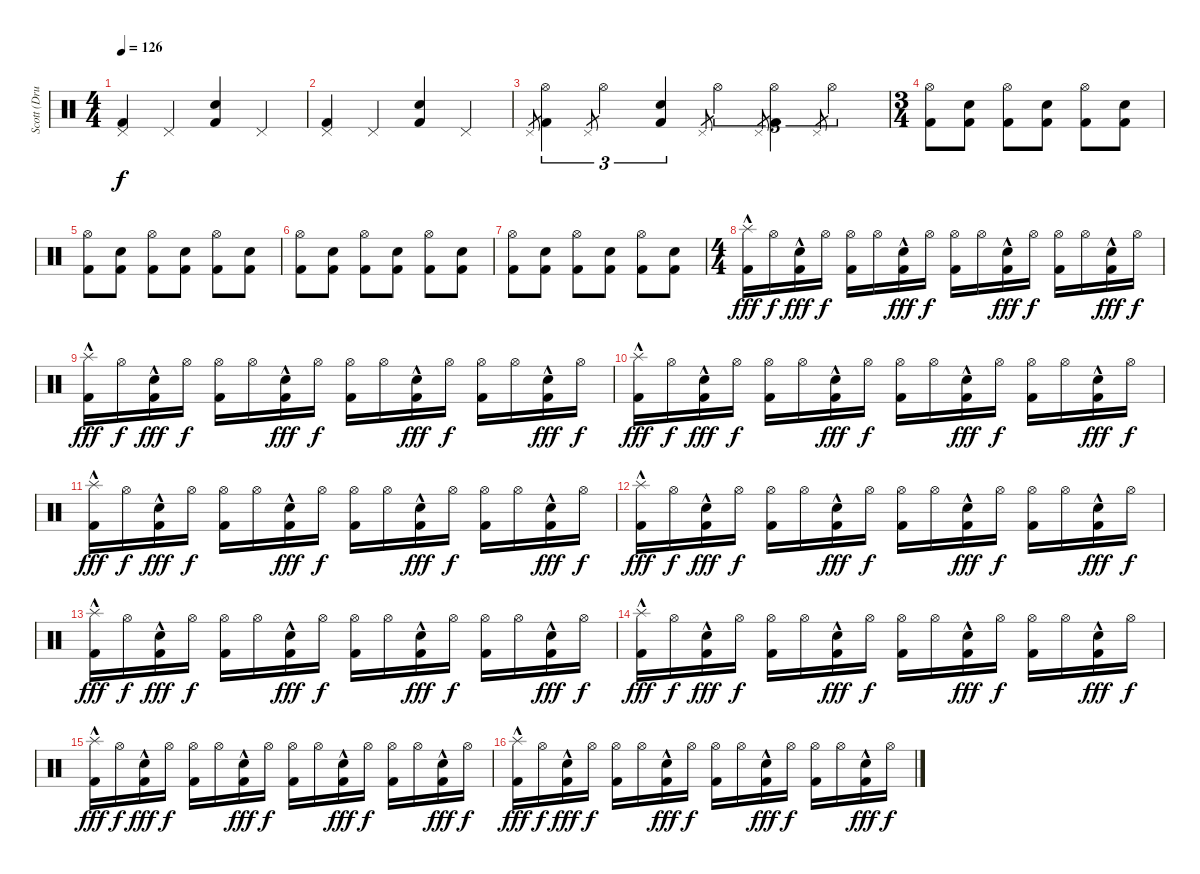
\track ("Scott (Drums)" "Scott (Dru") {instrument percussion}
\staff {score}
\articulation defaults
\ts (4 4)
\tempo 126
\clef neutral
\ks c
("Pedal Hi-Hat (hit)" "Kick (hit) 2").4{dy f} "Pedal Hi-Hat (hit)".4 ("Electric Snare (hit)" "Kick (hit) 2").4 "Pedal Hi-Hat (hit)".4 |
("Pedal Hi-Hat (hit)" "Kick (hit) 2").4 "Pedal Hi-Hat (hit)".4 ("Electric Snare (hit)" "Kick (hit) 2").4 "Pedal Hi-Hat (hit)".4 |
"Pedal Hi-Hat (hit)".8{gr} ("Hi-Hat (open)" "Kick (hit) 2").4{tu (3 2)} "Pedal Hi-Hat (hit)".8{gr} "Hi-Hat (open)".4{tu (3 2)} ("Electric Snare (hit)" "Kick (hit) 2").4{tu (3 2)} "Pedal Hi-Hat (hit)".8{gr} "Hi-Hat (open)".4{tu (3 2)} "Pedal Hi-Hat (hit)".8{gr} ("Hi-Hat (open)" "Kick (hit) 2").4{tu (3 2)} "Pedal Hi-Hat (hit)".8{gr} "Hi-Hat (open)".4{tu (3 2)} |
\ts (3 4)
("Hi-Hat (open)" "Kick (hit) 2").8 ("Electric Snare (hit)" "Kick (hit) 2").8 ("Hi-Hat (open)" "Kick (hit) 2").8 ("Electric Snare (hit)" "Kick (hit) 2").8 ("Hi-Hat (open)" "Kick (hit) 2").8 ("Electric Snare (hit)" "Kick (hit) 2").8 |
("Hi-Hat (open)" "Kick (hit) 2").8 ("Electric Snare (hit)" "Kick (hit) 2").8 ("Hi-Hat (open)" "Kick (hit) 2").8 ("Electric Snare (hit)" "Kick (hit) 2").8 ("Hi-Hat (open)" "Kick (hit) 2").8 ("Electric Snare (hit)" "Kick (hit) 2").8 |
("Hi-Hat (open)" "Kick (hit) 2").8 ("Electric Snare (hit)" "Kick (hit) 2").8 ("Hi-Hat (open)" "Kick (hit) 2").8 ("Electric Snare (hit)" "Kick (hit) 2").8 ("Hi-Hat (open)" "Kick (hit) 2").8 ("Electric Snare (hit)" "Kick (hit) 2").8 |
("Hi-Hat (open)" "Kick (hit) 2").8 ("Electric Snare (hit)" "Kick (hit) 2").8 ("Hi-Hat (open)" "Kick (hit) 2").8 ("Electric Snare (hit)" "Kick (hit) 2").8 ("Hi-Hat (open)" "Kick (hit) 2").8 ("Electric Snare (hit)" "Kick (hit) 2").8 |
\ts (4 4)
("Splash (hit)"{hac} "Kick (hit) 2").16{dy fff} "Hi-Hat (open)".16{dy f} ("Electric Snare (hit)"{hac} "Kick (hit) 2").16{dy fff} "Hi-Hat (open)".16{dy f} ("Hi-Hat (open)" "Kick (hit) 2").16 "Hi-Hat (open)".16 ("Electric Snare (hit)"{hac} "Kick (hit) 2").16{dy fff} "Hi-Hat (open)".16{dy f} ("Hi-Hat (open)" "Kick (hit) 2").16 "Hi-Hat (open)".16 ("Electric Snare (hit)"{hac} "Kick (hit) 2").16{dy fff} "Hi-Hat (open)".16{dy f} ("Hi-Hat (open)" "Kick (hit) 2").16 "Hi-Hat (open)".16 ("Electric Snare (hit)"{hac} "Kick (hit) 2").16{dy fff} "Hi-Hat (open)".16{dy f} |
("Splash (hit)"{hac} "Kick (hit) 2").16{dy fff} "Hi-Hat (open)".16{dy f} ("Electric Snare (hit)"{hac} "Kick (hit) 2").16{dy fff} "Hi-Hat (open)".16{dy f} ("Hi-Hat (open)" "Kick (hit) 2").16 "Hi-Hat (open)".16 ("Electric Snare (hit)"{hac} "Kick (hit) 2").16{dy fff} "Hi-Hat (open)".16{dy f} ("Hi-Hat (open)" "Kick (hit) 2").16 "Hi-Hat (open)".16 ("Electric Snare (hit)"{hac} "Kick (hit) 2").16{dy fff} "Hi-Hat (open)".16{dy f} ("Hi-Hat (open)" "Kick (hit) 2").16 "Hi-Hat (open)".16 ("Electric Snare (hit)"{hac} "Kick (hit) 2").16{dy fff} "Hi-Hat (open)".16{dy f} |
("Splash (hit)"{hac} "Kick (hit) 2").16{dy fff} "Hi-Hat (open)".16{dy f} ("Electric Snare (hit)"{hac} "Kick (hit) 2").16{dy fff} "Hi-Hat (open)".16{dy f} ("Hi-Hat (open)" "Kick (hit) 2").16 "Hi-Hat (open)".16 ("Electric Snare (hit)"{hac} "Kick (hit) 2").16{dy fff} "Hi-Hat (open)".16{dy f} ("Hi-Hat (open)" "Kick (hit) 2").16 "Hi-Hat (open)".16 ("Electric Snare (hit)"{hac} "Kick (hit) 2").16{dy fff} "Hi-Hat (open)".16{dy f} ("Hi-Hat (open)" "Kick (hit) 2").16 "Hi-Hat (open)".16 ("Electric Snare (hit)"{hac} "Kick (hit) 2").16{dy fff} "Hi-Hat (open)".16{dy f} |
("Splash (hit)"{hac} "Kick (hit) 2").16{dy fff} "Hi-Hat (open)".16{dy f} ("Electric Snare (hit)"{hac} "Kick (hit) 2").16{dy fff} "Hi-Hat (open)".16{dy f} ("Hi-Hat (open)" "Kick (hit) 2").16 "Hi-Hat (open)".16 ("Electric Snare (hit)"{hac} "Kick (hit) 2").16{dy fff} "Hi-Hat (open)".16{dy f} ("Hi-Hat (open)" "Kick (hit) 2").16 "Hi-Hat (open)".16 ("Electric Snare (hit)"{hac} "Kick (hit) 2").16{dy fff} "Hi-Hat (open)".16{dy f} ("Hi-Hat (open)" "Kick (hit) 2").16 "Hi-Hat (open)".16 ("Electric Snare (hit)"{hac} "Kick (hit) 2").16{dy fff} "Hi-Hat (open)".16{dy f} |
("Splash (hit)"{hac} "Kick (hit) 2").16{dy fff} "Hi-Hat (open)".16{dy f} ("Electric Snare (hit)"{hac} "Kick (hit) 2").16{dy fff} "Hi-Hat (open)".16{dy f} ("Hi-Hat (open)" "Kick (hit) 2").16 "Hi-Hat (open)".16 ("Electric Snare (hit)"{hac} "Kick (hit) 2").16{dy fff} "Hi-Hat (open)".16{dy f} ("Hi-Hat (open)" "Kick (hit) 2").16 "Hi-Hat (open)".16 ("Electric Snare (hit)"{hac} "Kick (hit) 2").16{dy fff} "Hi-Hat (open)".16{dy f} ("Hi-Hat (open)" "Kick (hit) 2").16 "Hi-Hat (open)".16 ("Electric Snare (hit)"{hac} "Kick (hit) 2").16{dy fff} "Hi-Hat (open)".16{dy f} |
("Splash (hit)"{hac} "Kick (hit) 2").16{dy fff} "Hi-Hat (open)".16{dy f} ("Electric Snare (hit)"{hac} "Kick (hit) 2").16{dy fff} "Hi-Hat (open)".16{dy f} ("Hi-Hat (open)" "Kick (hit) 2").16 "Hi-Hat (open)".16 ("Electric Snare (hit)"{hac} "Kick (hit) 2").16{dy fff} "Hi-Hat (open)".16{dy f} ("Hi-Hat (open)" "Kick (hit) 2").16 "Hi-Hat (open)".16 ("Electric Snare (hit)"{hac} "Kick (hit) 2").16{dy fff} "Hi-Hat (open)".16{dy f} ("Hi-Hat (open)" "Kick (hit) 2").16 "Hi-Hat (open)".16 ("Electric Snare (hit)"{hac} "Kick (hit) 2").16{dy fff} "Hi-Hat (open)".16{dy f} |
("Splash (hit)"{hac} "Kick (hit) 2").16{dy fff} "Hi-Hat (open)".16{dy f} ("Electric Snare (hit)"{hac} "Kick (hit) 2").16{dy fff} "Hi-Hat (open)".16{dy f} ("Hi-Hat (open)" "Kick (hit) 2").16 "Hi-Hat (open)".16 ("Electric Snare (hit)"{hac} "Kick (hit) 2").16{dy fff} "Hi-Hat (open)".16{dy f} ("Hi-Hat (open)" "Kick (hit) 2").16 "Hi-Hat (open)".16 ("Electric Snare (hit)"{hac} "Kick (hit) 2").16{dy fff} "Hi-Hat (open)".16{dy f} ("Hi-Hat (open)" "Kick (hit) 2").16 "Hi-Hat (open)".16 ("Electric Snare (hit)"{hac} "Kick (hit) 2").16{dy fff} "Hi-Hat (open)".16{dy f} |
("Splash (hit)"{hac} "Kick (hit) 2").16{dy fff} "Hi-Hat (open)".16{dy f} ("Electric Snare (hit)"{hac} "Kick (hit) 2").16{dy fff} "Hi-Hat (open)".16{dy f} ("Hi-Hat (open)" "Kick (hit) 2").16 "Hi-Hat (open)".16 ("Electric Snare (hit)"{hac} "Kick (hit) 2").16{dy fff} "Hi-Hat (open)".16{dy f} ("Hi-Hat (open)" "Kick (hit) 2").16 "Hi-Hat (open)".16 ("Electric Snare (hit)"{hac} "Kick (hit) 2").16{dy fff} "Hi-Hat (open)".16{dy f} ("Hi-Hat (open)" "Kick (hit) 2").16 "Hi-Hat (open)".16 ("Electric Snare (hit)"{hac} "Kick (hit) 2").16{dy fff} "Hi-Hat (open)".16{dy f} |
("Splash (hit)"{hac} "Kick (hit) 2").16{dy fff} "Hi-Hat (open)".16{dy f} ("Electric Snare (hit)"{hac} "Kick (hit) 2").16{dy fff} "Hi-Hat (open)".16{dy f} ("Hi-Hat (open)" "Kick (hit) 2").16 "Hi-Hat (open)".16 ("Electric Snare (hit)"{hac} "Kick (hit) 2").16{dy fff} "Hi-Hat (open)".16{dy f} ("Hi-Hat (open)" "Kick (hit) 2").16 "Hi-Hat (open)".16 ("Electric Snare (hit)"{hac} "Kick (hit) 2").16{dy fff} "Hi-Hat (open)".16{dy f} ("Hi-Hat (open)" "Kick (hit) 2").16 "Hi-Hat (open)".16 ("Electric Snare (hit)"{hac} "Kick (hit) 2").16{dy fff} "Hi-Hat (open)".16{dy f}
